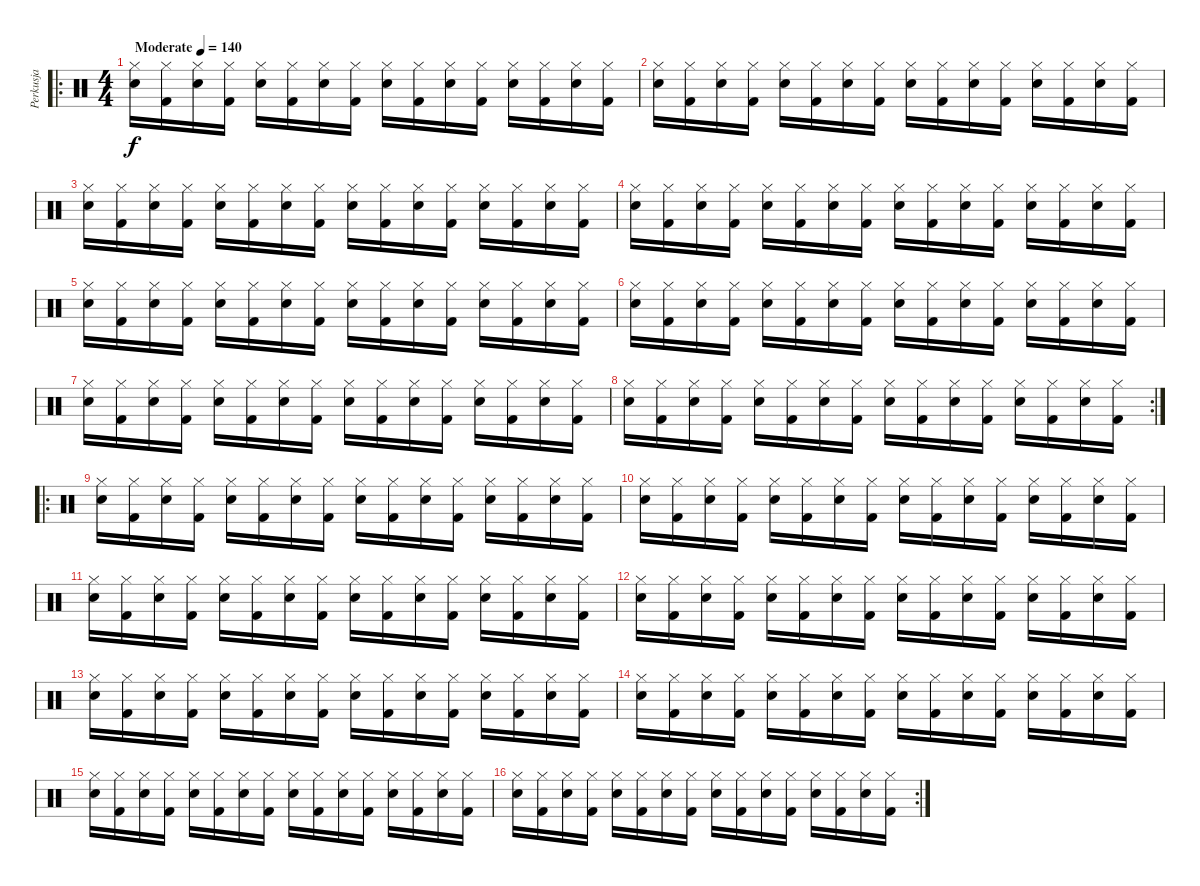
\track ("Perkusja" "Perkusja") {instrument percussion}
\staff {score}
\articulation defaults
\ro
\ts (4 4)
\tempo (140 "Moderate")
\clef neutral
\ks c
("Hi-Hat (closed)" "Snare (hit) 2").16{dy f} ("Hi-Hat (closed)" "Kick (hit) 2").16 ("Hi-Hat (closed)" "Snare (hit) 2").16 ("Hi-Hat (closed)" "Kick (hit) 2").16 ("Hi-Hat (closed)" "Snare (hit) 2").16 ("Hi-Hat (closed)" "Kick (hit) 2").16 ("Hi-Hat (closed)" "Snare (hit) 2").16 ("Hi-Hat (closed)" "Kick (hit) 2").16 ("Hi-Hat (closed)" "Snare (hit) 2").16 ("Hi-Hat (closed)" "Kick (hit) 2").16 ("Hi-Hat (closed)" "Snare (hit) 2").16 ("Hi-Hat (closed)" "Kick (hit) 2").16 ("Hi-Hat (closed)" "Snare (hit) 2").16 ("Hi-Hat (closed)" "Kick (hit) 2").16 ("Hi-Hat (closed)" "Snare (hit) 2").16 ("Hi-Hat (closed)" "Kick (hit) 2").16 |
("Hi-Hat (closed)" "Snare (hit) 2").16 ("Hi-Hat (closed)" "Kick (hit) 2").16 ("Hi-Hat (closed)" "Snare (hit) 2").16 ("Hi-Hat (closed)" "Kick (hit) 2").16 ("Hi-Hat (closed)" "Snare (hit) 2").16 ("Hi-Hat (closed)" "Kick (hit) 2").16 ("Hi-Hat (closed)" "Snare (hit) 2").16 ("Hi-Hat (closed)" "Kick (hit) 2").16 ("Hi-Hat (closed)" "Snare (hit) 2").16 ("Hi-Hat (closed)" "Kick (hit) 2").16 ("Hi-Hat (closed)" "Snare (hit) 2").16 ("Hi-Hat (closed)" "Kick (hit) 2").16 ("Hi-Hat (closed)" "Snare (hit) 2").16 ("Hi-Hat (closed)" "Kick (hit) 2").16 ("Hi-Hat (closed)" "Snare (hit) 2").16 ("Hi-Hat (closed)" "Kick (hit) 2").16 |
("Hi-Hat (closed)" "Snare (hit) 2").16 ("Hi-Hat (closed)" "Kick (hit) 2").16 ("Hi-Hat (closed)" "Snare (hit) 2").16 ("Hi-Hat (closed)" "Kick (hit) 2").16 ("Hi-Hat (closed)" "Snare (hit) 2").16 ("Hi-Hat (closed)" "Kick (hit) 2").16 ("Hi-Hat (closed)" "Snare (hit) 2").16 ("Hi-Hat (closed)" "Kick (hit) 2").16 ("Hi-Hat (closed)" "Snare (hit) 2").16 ("Hi-Hat (closed)" "Kick (hit) 2").16 ("Hi-Hat (closed)" "Snare (hit) 2").16 ("Hi-Hat (closed)" "Kick (hit) 2").16 ("Hi-Hat (closed)" "Snare (hit) 2").16 ("Hi-Hat (closed)" "Kick (hit) 2").16 ("Hi-Hat (closed)" "Snare (hit) 2").16 ("Hi-Hat (closed)" "Kick (hit) 2").16 |
("Hi-Hat (closed)" "Snare (hit) 2").16 ("Hi-Hat (closed)" "Kick (hit) 2").16 ("Hi-Hat (closed)" "Snare (hit) 2").16 ("Hi-Hat (closed)" "Kick (hit) 2").16 ("Hi-Hat (closed)" "Snare (hit) 2").16 ("Hi-Hat (closed)" "Kick (hit) 2").16 ("Hi-Hat (closed)" "Snare (hit) 2").16 ("Hi-Hat (closed)" "Kick (hit) 2").16 ("Hi-Hat (closed)" "Snare (hit) 2").16 ("Hi-Hat (closed)" "Kick (hit) 2").16 ("Hi-Hat (closed)" "Snare (hit) 2").16 ("Hi-Hat (closed)" "Kick (hit) 2").16 ("Hi-Hat (closed)" "Snare (hit) 2").16 ("Hi-Hat (closed)" "Kick (hit) 2").16 ("Hi-Hat (closed)" "Snare (hit) 2").16 ("Hi-Hat (closed)" "Kick (hit) 2").16 |
("Hi-Hat (closed)" "Snare (hit) 2").16 ("Hi-Hat (closed)" "Kick (hit) 2").16 ("Hi-Hat (closed)" "Snare (hit) 2").16 ("Hi-Hat (closed)" "Kick (hit) 2").16 ("Hi-Hat (closed)" "Snare (hit) 2").16 ("Hi-Hat (closed)" "Kick (hit) 2").16 ("Hi-Hat (closed)" "Snare (hit) 2").16 ("Hi-Hat (closed)" "Kick (hit) 2").16 ("Hi-Hat (closed)" "Snare (hit) 2").16 ("Hi-Hat (closed)" "Kick (hit) 2").16 ("Hi-Hat (closed)" "Snare (hit) 2").16 ("Hi-Hat (closed)" "Kick (hit) 2").16 ("Hi-Hat (closed)" "Snare (hit) 2").16 ("Hi-Hat (closed)" "Kick (hit) 2").16 ("Hi-Hat (closed)" "Snare (hit) 2").16 ("Hi-Hat (closed)" "Kick (hit) 2").16 |
("Hi-Hat (closed)" "Snare (hit) 2").16 ("Hi-Hat (closed)" "Kick (hit) 2").16 ("Hi-Hat (closed)" "Snare (hit) 2").16 ("Hi-Hat (closed)" "Kick (hit) 2").16 ("Hi-Hat (closed)" "Snare (hit) 2").16 ("Hi-Hat (closed)" "Kick (hit) 2").16 ("Hi-Hat (closed)" "Snare (hit) 2").16 ("Hi-Hat (closed)" "Kick (hit) 2").16 ("Hi-Hat (closed)" "Snare (hit) 2").16 ("Hi-Hat (closed)" "Kick (hit) 2").16 ("Hi-Hat (closed)" "Snare (hit) 2").16 ("Hi-Hat (closed)" "Kick (hit) 2").16 ("Hi-Hat (closed)" "Snare (hit) 2").16 ("Hi-Hat (closed)" "Kick (hit) 2").16 ("Hi-Hat (closed)" "Snare (hit) 2").16 ("Hi-Hat (closed)" "Kick (hit) 2").16 |
("Hi-Hat (closed)" "Snare (hit) 2").16 ("Hi-Hat (closed)" "Kick (hit) 2").16 ("Hi-Hat (closed)" "Snare (hit) 2").16 ("Hi-Hat (closed)" "Kick (hit) 2").16 ("Hi-Hat (closed)" "Snare (hit) 2").16 ("Hi-Hat (closed)" "Kick (hit) 2").16 ("Hi-Hat (closed)" "Snare (hit) 2").16 ("Hi-Hat (closed)" "Kick (hit) 2").16 ("Hi-Hat (closed)" "Snare (hit) 2").16 ("Hi-Hat (closed)" "Kick (hit) 2").16 ("Hi-Hat (closed)" "Snare (hit) 2").16 ("Hi-Hat (closed)" "Kick (hit) 2").16 ("Hi-Hat (closed)" "Snare (hit) 2").16 ("Hi-Hat (closed)" "Kick (hit) 2").16 ("Hi-Hat (closed)" "Snare (hit) 2").16 ("Hi-Hat (closed)" "Kick (hit) 2").16 |
\rc 2
("Hi-Hat (closed)" "Snare (hit) 2").16 ("Hi-Hat (closed)" "Kick (hit) 2").16 ("Hi-Hat (closed)" "Snare (hit) 2").16 ("Hi-Hat (closed)" "Kick (hit) 2").16 ("Hi-Hat (closed)" "Snare (hit) 2").16 ("Hi-Hat (closed)" "Kick (hit) 2").16 ("Hi-Hat (closed)" "Snare (hit) 2").16 ("Hi-Hat (closed)" "Kick (hit) 2").16 ("Hi-Hat (closed)" "Snare (hit) 2").16 ("Hi-Hat (closed)" "Kick (hit) 2").16 ("Hi-Hat (closed)" "Snare (hit) 2").16 ("Hi-Hat (closed)" "Kick (hit) 2").16 ("Hi-Hat (closed)" "Snare (hit) 2").16 ("Hi-Hat (closed)" "Kick (hit) 2").16 ("Hi-Hat (closed)" "Snare (hit) 2").16 ("Hi-Hat (closed)" "Kick (hit) 2").16 |
\ro
("Hi-Hat (closed)" "Snare (hit) 2").16 ("Hi-Hat (closed)" "Kick (hit) 2").16 ("Hi-Hat (closed)" "Snare (hit) 2").16 ("Hi-Hat (closed)" "Kick (hit) 2").16 ("Hi-Hat (closed)" "Snare (hit) 2").16 ("Hi-Hat (closed)" "Kick (hit) 2").16 ("Hi-Hat (closed)" "Snare (hit) 2").16 ("Hi-Hat (closed)" "Kick (hit) 2").16 ("Hi-Hat (closed)" "Snare (hit) 2").16 ("Hi-Hat (closed)" "Kick (hit) 2").16 ("Hi-Hat (closed)" "Snare (hit) 2").16 ("Hi-Hat (closed)" "Kick (hit) 2").16 ("Hi-Hat (closed)" "Snare (hit) 2").16 ("Hi-Hat (closed)" "Kick (hit) 2").16 ("Hi-Hat (closed)" "Snare (hit) 2").16 ("Hi-Hat (closed)" "Kick (hit) 2").16 |
("Hi-Hat (closed)" "Snare (hit) 2").16 ("Hi-Hat (closed)" "Kick (hit) 2").16 ("Hi-Hat (closed)" "Snare (hit) 2").16 ("Hi-Hat (closed)" "Kick (hit) 2").16 ("Hi-Hat (closed)" "Snare (hit) 2").16 ("Hi-Hat (closed)" "Kick (hit) 2").16 ("Hi-Hat (closed)" "Snare (hit) 2").16 ("Hi-Hat (closed)" "Kick (hit) 2").16 ("Hi-Hat (closed)" "Snare (hit) 2").16 ("Hi-Hat (closed)" "Kick (hit) 2").16 ("Hi-Hat (closed)" "Snare (hit) 2").16 ("Hi-Hat (closed)" "Kick (hit) 2").16 ("Hi-Hat (closed)" "Snare (hit) 2").16 ("Hi-Hat (closed)" "Kick (hit) 2").16 ("Hi-Hat (closed)" "Snare (hit) 2").16 ("Hi-Hat (closed)" "Kick (hit) 2").16 |
("Hi-Hat (closed)" "Snare (hit) 2").16 ("Hi-Hat (closed)" "Kick (hit) 2").16 ("Hi-Hat (closed)" "Snare (hit) 2").16 ("Hi-Hat (closed)" "Kick (hit) 2").16 ("Hi-Hat (closed)" "Snare (hit) 2").16 ("Hi-Hat (closed)" "Kick (hit) 2").16 ("Hi-Hat (closed)" "Snare (hit) 2").16 ("Hi-Hat (closed)" "Kick (hit) 2").16 ("Hi-Hat (closed)" "Snare (hit) 2").16 ("Hi-Hat (closed)" "Kick (hit) 2").16 ("Hi-Hat (closed)" "Snare (hit) 2").16 ("Hi-Hat (closed)" "Kick (hit) 2").16 ("Hi-Hat (closed)" "Snare (hit) 2").16 ("Hi-Hat (closed)" "Kick (hit) 2").16 ("Hi-Hat (closed)" "Snare (hit) 2").16 ("Hi-Hat (closed)" "Kick (hit) 2").16 |
("Hi-Hat (closed)" "Snare (hit) 2").16 ("Hi-Hat (closed)" "Kick (hit) 2").16 ("Hi-Hat (closed)" "Snare (hit) 2").16 ("Hi-Hat (closed)" "Kick (hit) 2").16 ("Hi-Hat (closed)" "Snare (hit) 2").16 ("Hi-Hat (closed)" "Kick (hit) 2").16 ("Hi-Hat (closed)" "Snare (hit) 2").16 ("Hi-Hat (closed)" "Kick (hit) 2").16 ("Hi-Hat (closed)" "Snare (hit) 2").16 ("Hi-Hat (closed)" "Kick (hit) 2").16 ("Hi-Hat (closed)" "Snare (hit) 2").16 ("Hi-Hat (closed)" "Kick (hit) 2").16 ("Hi-Hat (closed)" "Snare (hit) 2").16 ("Hi-Hat (closed)" "Kick (hit) 2").16 ("Hi-Hat (closed)" "Snare (hit) 2").16 ("Hi-Hat (closed)" "Kick (hit) 2").16 |
("Hi-Hat (closed)" "Snare (hit) 2").16 ("Hi-Hat (closed)" "Kick (hit) 2").16 ("Hi-Hat (closed)" "Snare (hit) 2").16 ("Hi-Hat (closed)" "Kick (hit) 2").16 ("Hi-Hat (closed)" "Snare (hit) 2").16 ("Hi-Hat (closed)" "Kick (hit) 2").16 ("Hi-Hat (closed)" "Snare (hit) 2").16 ("Hi-Hat (closed)" "Kick (hit) 2").16 ("Hi-Hat (closed)" "Snare (hit) 2").16 ("Hi-Hat (closed)" "Kick (hit) 2").16 ("Hi-Hat (closed)" "Snare (hit) 2").16 ("Hi-Hat (closed)" "Kick (hit) 2").16 ("Hi-Hat (closed)" "Snare (hit) 2").16 ("Hi-Hat (closed)" "Kick (hit) 2").16 ("Hi-Hat (closed)" "Snare (hit) 2").16 ("Hi-Hat (closed)" "Kick (hit) 2").16 |
("Hi-Hat (closed)" "Snare (hit) 2").16 ("Hi-Hat (closed)" "Kick (hit) 2").16 ("Hi-Hat (closed)" "Snare (hit) 2").16 ("Hi-Hat (closed)" "Kick (hit) 2").16 ("Hi-Hat (closed)" "Snare (hit) 2").16 ("Hi-Hat (closed)" "Kick (hit) 2").16 ("Hi-Hat (closed)" "Snare (hit) 2").16 ("Hi-Hat (closed)" "Kick (hit) 2").16 ("Hi-Hat (closed)" "Snare (hit) 2").16 ("Hi-Hat (closed)" "Kick (hit) 2").16 ("Hi-Hat (closed)" "Snare (hit) 2").16 ("Hi-Hat (closed)" "Kick (hit) 2").16 ("Hi-Hat (closed)" "Snare (hit) 2").16 ("Hi-Hat (closed)" "Kick (hit) 2").16 ("Hi-Hat (closed)" "Snare (hit) 2").16 ("Hi-Hat (closed)" "Kick (hit) 2").16 |
("Hi-Hat (closed)" "Snare (hit) 2").16 ("Hi-Hat (closed)" "Kick (hit) 2").16 ("Hi-Hat (closed)" "Snare (hit) 2").16 ("Hi-Hat (closed)" "Kick (hit) 2").16 ("Hi-Hat (closed)" "Snare (hit) 2").16 ("Hi-Hat (closed)" "Kick (hit) 2").16 ("Hi-Hat (closed)" "Snare (hit) 2").16 ("Hi-Hat (closed)" "Kick (hit) 2").16 ("Hi-Hat (closed)" "Snare (hit) 2").16 ("Hi-Hat (closed)" "Kick (hit) 2").16 ("Hi-Hat (closed)" "Snare (hit) 2").16 ("Hi-Hat (closed)" "Kick (hit) 2").16 ("Hi-Hat (closed)" "Snare (hit) 2").16 ("Hi-Hat (closed)" "Kick (hit) 2").16 ("Hi-Hat (closed)" "Snare (hit) 2").16 ("Hi-Hat (closed)" "Kick (hit) 2").16 |
\rc 2
("Hi-Hat (closed)" "Snare (hit) 2").16 ("Hi-Hat (closed)" "Kick (hit) 2").16 ("Hi-Hat (closed)" "Snare (hit) 2").16 ("Hi-Hat (closed)" "Kick (hit) 2").16 ("Hi-Hat (closed)" "Snare (hit) 2").16 ("Hi-Hat (closed)" "Kick (hit) 2").16 ("Hi-Hat (closed)" "Snare (hit) 2").16 ("Hi-Hat (closed)" "Kick (hit) 2").16 ("Hi-Hat (closed)" "Snare (hit) 2").16 ("Hi-Hat (closed)" "Kick (hit) 2").16 ("Hi-Hat (closed)" "Snare (hit) 2").16 ("Hi-Hat (closed)" "Kick (hit) 2").16 ("Hi-Hat (closed)" "Snare (hit) 2").16 ("Hi-Hat (closed)" "Kick (hit) 2").16 ("Hi-Hat (closed)" "Snare (hit) 2").16 ("Hi-Hat (closed)" "Kick (hit) 2").16
